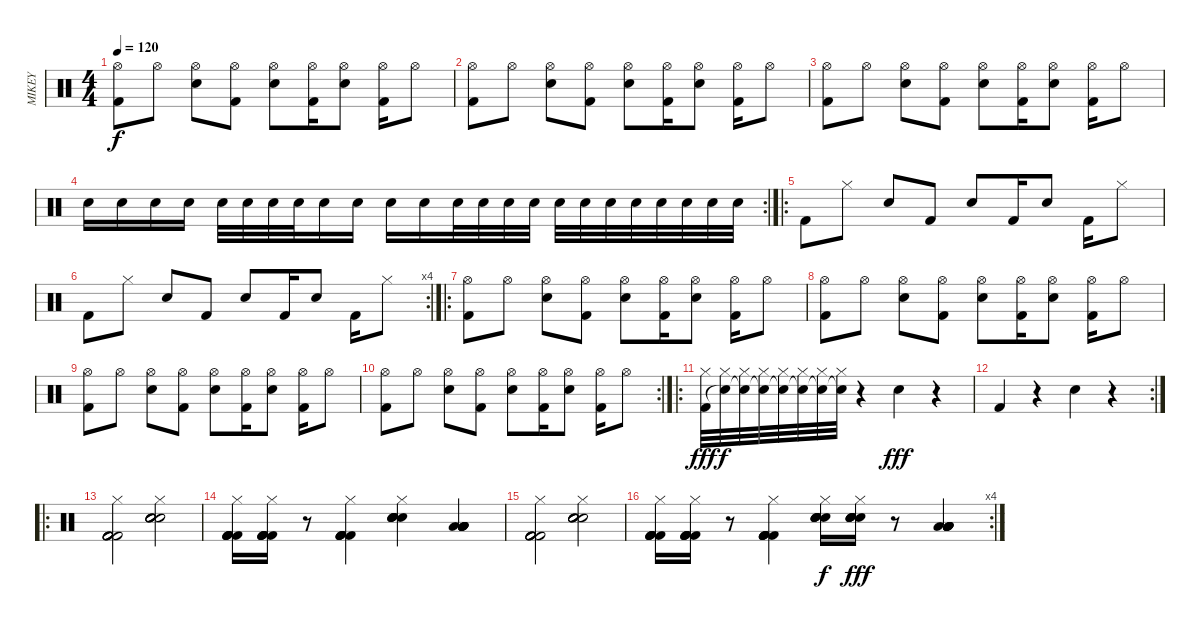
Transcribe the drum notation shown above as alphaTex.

\track ("MIKEY" "MIKEY") {instrument percussion}
\staff {score}
\articulation defaults
\ts (4 4)
\tempo 120
\clef neutral
\ks c
("Kick (hit) 2" "Hi-Hat (open)").8{dy f} "Hi-Hat (open)".8 ("Snare (hit) 2" "Hi-Hat (open)").8 ("Kick (hit) 2" "Hi-Hat (open)").8 ("Snare (hit) 2" "Hi-Hat (open)").8 ("Kick (hit) 2" "Hi-Hat (open)").16 ("Snare (hit) 2" "Hi-Hat (open)").8 ("Kick (hit) 2" "Hi-Hat (open)").16 "Hi-Hat (open)".8 |
("Kick (hit) 2" "Hi-Hat (open)").8 "Hi-Hat (open)".8 ("Snare (hit) 2" "Hi-Hat (open)").8 ("Kick (hit) 2" "Hi-Hat (open)").8 ("Snare (hit) 2" "Hi-Hat (open)").8 ("Kick (hit) 2" "Hi-Hat (open)").16 ("Snare (hit) 2" "Hi-Hat (open)").8 ("Kick (hit) 2" "Hi-Hat (open)").16 "Hi-Hat (open)".8 |
("Kick (hit) 2" "Hi-Hat (open)").8 "Hi-Hat (open)".8 ("Snare (hit) 2" "Hi-Hat (open)").8 ("Kick (hit) 2" "Hi-Hat (open)").8 ("Snare (hit) 2" "Hi-Hat (open)").8 ("Kick (hit) 2" "Hi-Hat (open)").16 ("Snare (hit) 2" "Hi-Hat (open)").8 ("Kick (hit) 2" "Hi-Hat (open)").16 "Hi-Hat (open)".8 |
\rc 2 "Electric Snare (hit)".16 "Electric Snare (hit)".16 "Electric Snare (hit)".16 "Electric Snare (hit)".16 "Electric Snare (hit)".32 "Electric Snare (hit)".32 "Electric Snare (hit)".32 "Electric Snare (hit)".32 "Electric Snare (hit)".16 "Electric Snare (hit)".16 "Electric Snare (hit)".16 "Electric Snare (hit)".16 "Electric Snare (hit)".32 "Electric Snare (hit)".32 "Electric Snare (hit)".32 "Electric Snare (hit)".32 "Electric Snare (hit)".32 "Electric Snare (hit)".32 "Electric Snare (hit)".32 "Electric Snare (hit)".32 "Electric Snare (hit)".32 "Electric Snare (hit)".32 "Electric Snare (hit)".32 "Electric Snare (hit)".32
|
\ro "Kick (hit) 2".8 "Hi-Hat (closed)".8 "Snare (hit) 2".8 "Kick (hit) 2".8 "Snare (hit) 2".8 "Kick (hit) 2".16 "Snare (hit) 2".8 "Kick (hit) 2".16 "Hi-Hat (closed)".8
|
\rc 4 "Kick (hit) 2".8 "Hi-Hat (closed)".8 "Snare (hit) 2".8 "Kick (hit) 2".8 "Snare (hit) 2".8 "Kick (hit) 2".16 "Snare (hit) 2".8 "Kick (hit) 2".16 "Hi-Hat (closed)".8
|
\ro
("Kick (hit) 2" "Hi-Hat (open)").8 "Hi-Hat (open)".8 ("Snare (hit) 2" "Hi-Hat (open)").8 ("Kick (hit) 2" "Hi-Hat (open)").8 ("Snare (hit) 2" "Hi-Hat (open)").8 ("Kick (hit) 2" "Hi-Hat (open)").16 ("Snare (hit) 2" "Hi-Hat (open)").8 ("Kick (hit) 2" "Hi-Hat (open)").16 "Hi-Hat (open)".8 |
("Kick (hit) 2" "Hi-Hat (open)").8 "Hi-Hat (open)".8 ("Snare (hit) 2" "Hi-Hat (open)").8 ("Kick (hit) 2" "Hi-Hat (open)").8 ("Snare (hit) 2" "Hi-Hat (open)").8 ("Kick (hit) 2" "Hi-Hat (open)").16 ("Snare (hit) 2" "Hi-Hat (open)").8 ("Kick (hit) 2" "Hi-Hat (open)").16 "Hi-Hat (open)".8 |
("Kick (hit) 2" "Hi-Hat (open)").8 "Hi-Hat (open)".8 ("Snare (hit) 2" "Hi-Hat (open)").8 ("Kick (hit) 2" "Hi-Hat (open)").8 ("Snare (hit) 2" "Hi-Hat (open)").8 ("Kick (hit) 2" "Hi-Hat (open)").16 ("Snare (hit) 2" "Hi-Hat (open)").8 ("Kick (hit) 2" "Hi-Hat (open)").16 "Hi-Hat (open)".8 |
\rc 2
("Kick (hit) 2" "Hi-Hat (open)").8 "Hi-Hat (open)".8 ("Snare (hit) 2" "Hi-Hat (open)").8 ("Kick (hit) 2" "Hi-Hat (open)").8 ("Snare (hit) 2" "Hi-Hat (open)").8 ("Kick (hit) 2" "Hi-Hat (open)").16 ("Snare (hit) 2" "Hi-Hat (open)").8 ("Kick (hit) 2" "Hi-Hat (open)").16 "Hi-Hat (open)".8 |
\ro
("Kick (hit) 2" "Hi-Hat (closed)").32{dy fff} ("Snare (hit)"{t} "Hi-Hat (closed)").32{dy f} ("Snare (hit)"{t} "Hi-Hat (closed)").32 ("Snare (hit)"{t} "Hi-Hat (closed)").32 ("Snare (hit)"{t} "Hi-Hat (closed)").32 ("Snare (hit)"{t} "Hi-Hat (closed)").32 ("Snare (hit)"{t} "Hi-Hat (closed)").32 ("Snare (hit)"{t} "Hi-Hat (closed)").32 r.4 "Snare (hit) 2".4{dy fff} r.4 |
\rc 2 "Kick (hit) 2".4
r.4 "Snare (hit) 2".4 r.4 |
\ro
("Hi-Hat (closed)" "Kick (hit) 2" "Kick (hit) 2" "Kick (hit) 2" "Kick (hit) 2" "Kick (hit) 2").2 ("Hi-Hat (closed)" "Snare (hit) 2" "Snare (hit) 2" "Snare (hit) 2" "Snare (hit) 2" "Snare (hit) 2").2 |
("Hi-Hat (closed)" "Kick (hit) 2" "Kick (hit) 2" "Kick (hit) 2" "Kick (hit) 2" "Kick (hit) 2").16 ("Hi-Hat (closed)" "Kick (hit) 2" "Kick (hit) 2" "Kick (hit) 2" "Kick (hit) 2" "Kick (hit) 2").16 r.8 ("Hi-Hat (closed)" "Kick (hit) 2" "Kick (hit) 2" "Kick (hit) 2" "Kick (hit) 2" "Kick (hit) 2").4 ("Hi-Hat (closed)" "Snare (hit) 2" "Snare (hit) 2" "Snare (hit) 2" "Snare (hit) 2" "Snare (hit) 2").4 ("Low Tom (hit)" "Low Tom (hit)" "Low Tom (hit)" "Low Tom (hit)" "Low Tom (hit)" "Low Tom (hit)").4 |
("Hi-Hat (closed)" "Kick (hit) 2" "Kick (hit) 2" "Kick (hit) 2" "Kick (hit) 2" "Kick (hit) 2").2 ("Hi-Hat (closed)" "Snare (hit) 2" "Snare (hit) 2" "Snare (hit) 2" "Snare (hit) 2" "Snare (hit) 2").2 |
\rc 4
("Hi-Hat (closed)" "Kick (hit) 2" "Kick (hit) 2" "Kick (hit) 2" "Kick (hit) 2" "Kick (hit) 2").16 ("Hi-Hat (closed)" "Kick (hit) 2" "Kick (hit) 2" "Kick (hit) 2" "Kick (hit) 2" "Kick (hit) 2").16 r.8 ("Hi-Hat (closed)" "Kick (hit) 2" "Kick (hit) 2" "Kick (hit) 2" "Kick (hit) 2" "Kick (hit) 2").4 ("Hi-Hat (closed)" "Snare (hit) 2" "Snare (hit) 2" "Snare (hit) 2" "Snare (hit) 2" "Snare (hit) 2").16{dy f} ("Hi-Hat (closed)" "Snare (hit) 2" "Snare (hit) 2" "Snare (hit) 2" "Snare (hit) 2" "Snare (hit) 2").16{dy fff} r.8 ("Low Tom (hit)" "Low Tom (hit)" "Low Tom (hit)" "Low Tom (hit)" "Low Tom (hit)" "Low Tom (hit)").4
